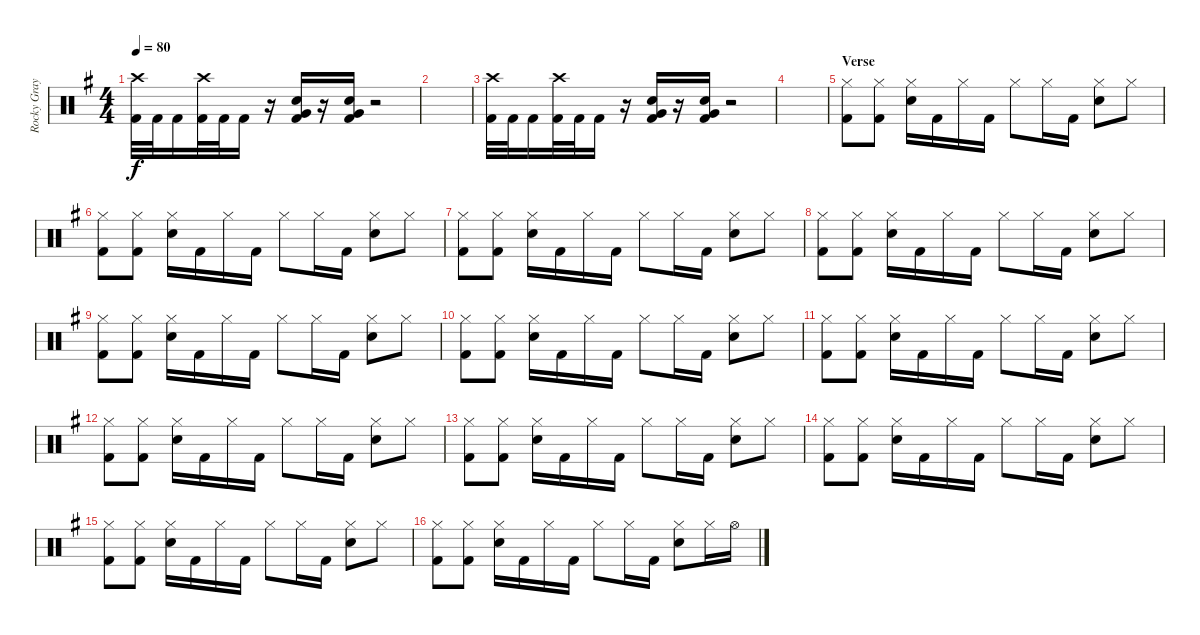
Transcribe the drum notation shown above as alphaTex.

\track ("Rocky Gray" "Rocky Gray") {instrument percussion}
\staff {score}
\articulation defaults
\ts (4 4)
\tempo 80
\clef neutral
\ks g
("Crash high (hit)" "Kick (hit) 2").32{dy f} "Kick (hit) 2".32 "Kick (hit) 2".16 ("Crash high (hit)" "Kick (hit) 2").32 "Kick (hit) 2".32 "Kick (hit) 2".16 r.16 ("Snare (hit) 2" "Very Low Tom (hit)" "Kick (hit) 2").16 r.16 ("Snare (hit) 2" "Very Low Tom (hit)" "Kick (hit) 2").16 r.2 |
|
("Crash high (hit)" "Kick (hit) 2").32 "Kick (hit) 2".32 "Kick (hit) 2".16 ("Crash high (hit)" "Kick (hit) 2").32 "Kick (hit) 2".32 "Kick (hit) 2".16 r.16 ("Snare (hit) 2" "Very Low Tom (hit)" "Kick (hit) 2").16 r.16 ("Snare (hit) 2" "Very Low Tom (hit)" "Kick (hit) 2").16 r.2 |
|
\section ("" "Verse")
("Hi-Hat (closed)" "Kick (hit) 2").8 ("Hi-Hat (closed)" "Kick (hit) 2").8 ("Hi-Hat (closed)" "Snare (hit) 2").16 "Kick (hit) 2".16 "Hi-Hat (closed)".16 "Kick (hit) 2".16 "Hi-Hat (closed)".8 "Hi-Hat (closed)".16 "Kick (hit) 2".16 ("Hi-Hat (closed)" "Snare (hit) 2").8 "Hi-Hat (closed)".8 |
("Hi-Hat (closed)" "Kick (hit) 2").8 ("Hi-Hat (closed)" "Kick (hit) 2").8 ("Hi-Hat (closed)" "Snare (hit) 2").16 "Kick (hit) 2".16 "Hi-Hat (closed)".16 "Kick (hit) 2".16 "Hi-Hat (closed)".8 "Hi-Hat (closed)".16 "Kick (hit) 2".16 ("Hi-Hat (closed)" "Snare (hit) 2").8 "Hi-Hat (closed)".8 |
("Hi-Hat (closed)" "Kick (hit) 2").8 ("Hi-Hat (closed)" "Kick (hit) 2").8 ("Hi-Hat (closed)" "Snare (hit) 2").16 "Kick (hit) 2".16 "Hi-Hat (closed)".16 "Kick (hit) 2".16 "Hi-Hat (closed)".8 "Hi-Hat (closed)".16 "Kick (hit) 2".16 ("Hi-Hat (closed)" "Snare (hit) 2").8 "Hi-Hat (closed)".8 |
("Hi-Hat (closed)" "Kick (hit) 2").8 ("Hi-Hat (closed)" "Kick (hit) 2").8 ("Hi-Hat (closed)" "Snare (hit) 2").16 "Kick (hit) 2".16 "Hi-Hat (closed)".16 "Kick (hit) 2".16 "Hi-Hat (closed)".8 "Hi-Hat (closed)".16 "Kick (hit) 2".16 ("Hi-Hat (closed)" "Snare (hit) 2").8 "Hi-Hat (closed)".8 |
("Hi-Hat (closed)" "Kick (hit) 2").8 ("Hi-Hat (closed)" "Kick (hit) 2").8 ("Hi-Hat (closed)" "Snare (hit) 2").16 "Kick (hit) 2".16 "Hi-Hat (closed)".16 "Kick (hit) 2".16 "Hi-Hat (closed)".8 "Hi-Hat (closed)".16 "Kick (hit) 2".16 ("Hi-Hat (closed)" "Snare (hit) 2").8 "Hi-Hat (closed)".8 |
("Hi-Hat (closed)" "Kick (hit) 2").8 ("Hi-Hat (closed)" "Kick (hit) 2").8 ("Hi-Hat (closed)" "Snare (hit) 2").16 "Kick (hit) 2".16 "Hi-Hat (closed)".16 "Kick (hit) 2".16 "Hi-Hat (closed)".8 "Hi-Hat (closed)".16 "Kick (hit) 2".16 ("Hi-Hat (closed)" "Snare (hit) 2").8 "Hi-Hat (closed)".8 |
("Hi-Hat (closed)" "Kick (hit) 2").8 ("Hi-Hat (closed)" "Kick (hit) 2").8 ("Hi-Hat (closed)" "Snare (hit) 2").16 "Kick (hit) 2".16 "Hi-Hat (closed)".16 "Kick (hit) 2".16 "Hi-Hat (closed)".8 "Hi-Hat (closed)".16 "Kick (hit) 2".16 ("Hi-Hat (closed)" "Snare (hit) 2").8 "Hi-Hat (closed)".8 |
("Hi-Hat (closed)" "Kick (hit) 2").8 ("Hi-Hat (closed)" "Kick (hit) 2").8 ("Hi-Hat (closed)" "Snare (hit) 2").16 "Kick (hit) 2".16 "Hi-Hat (closed)".16 "Kick (hit) 2".16 "Hi-Hat (closed)".8 "Hi-Hat (closed)".16 "Kick (hit) 2".16 ("Hi-Hat (closed)" "Snare (hit) 2").8 "Hi-Hat (closed)".8 |
("Hi-Hat (closed)" "Kick (hit) 2").8 ("Hi-Hat (closed)" "Kick (hit) 2").8 ("Hi-Hat (closed)" "Snare (hit) 2").16 "Kick (hit) 2".16 "Hi-Hat (closed)".16 "Kick (hit) 2".16 "Hi-Hat (closed)".8 "Hi-Hat (closed)".16 "Kick (hit) 2".16 ("Hi-Hat (closed)" "Snare (hit) 2").8 "Hi-Hat (closed)".8 |
("Hi-Hat (closed)" "Kick (hit) 2").8 ("Hi-Hat (closed)" "Kick (hit) 2").8 ("Hi-Hat (closed)" "Snare (hit) 2").16 "Kick (hit) 2".16 "Hi-Hat (closed)".16 "Kick (hit) 2".16 "Hi-Hat (closed)".8 "Hi-Hat (closed)".16 "Kick (hit) 2".16 ("Hi-Hat (closed)" "Snare (hit) 2").8 "Hi-Hat (closed)".8 |
("Hi-Hat (closed)" "Kick (hit) 2").8 ("Hi-Hat (closed)" "Kick (hit) 2").8 ("Hi-Hat (closed)" "Snare (hit) 2").16 "Kick (hit) 2".16 "Hi-Hat (closed)".16 "Kick (hit) 2".16 "Hi-Hat (closed)".8 "Hi-Hat (closed)".16 "Kick (hit) 2".16 ("Hi-Hat (closed)" "Snare (hit) 2").8 "Hi-Hat (closed)".8 |
("Hi-Hat (closed)" "Kick (hit) 2").8 ("Hi-Hat (closed)" "Kick (hit) 2").8 ("Hi-Hat (closed)" "Snare (hit) 2").16 "Kick (hit) 2".16 "Hi-Hat (closed)".16 "Kick (hit) 2".16 "Hi-Hat (closed)".8 "Hi-Hat (closed)".16 "Kick (hit) 2".16 ("Hi-Hat (closed)" "Snare (hit) 2").8 "Hi-Hat (closed)".16 "Hi-Hat (open)".16
